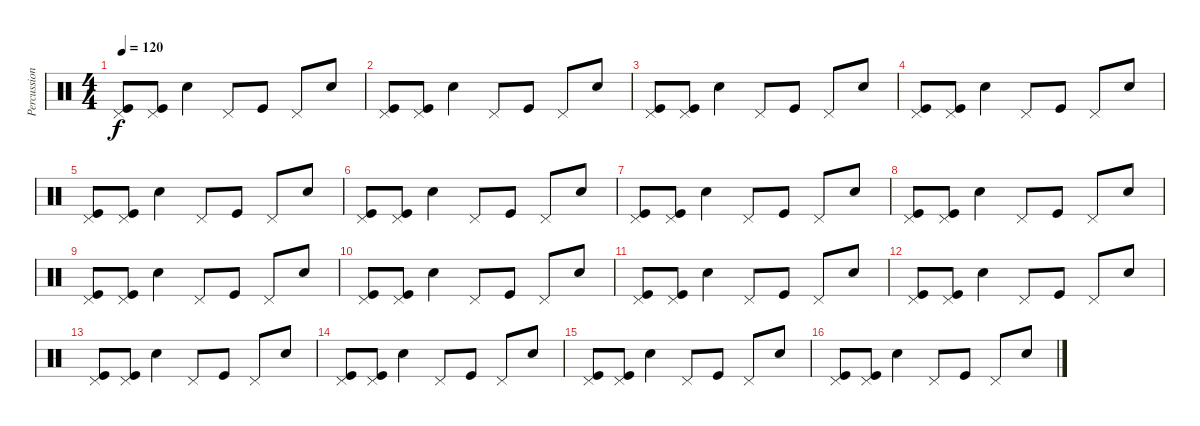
\track ("Percussion" "Percussion") {instrument percussion}
\staff {score}
\articulation defaults
\ts (4 4)
\tempo 120
\clef neutral
\ks c
("Kick (hit)" "Pedal Hi-Hat (hit)").8{dy f} ("Kick (hit)" "Pedal Hi-Hat (hit)").8 "Snare (hit) 2".4 "Pedal Hi-Hat (hit)".8 "Kick (hit)".8 "Pedal Hi-Hat (hit)".8 "Snare (hit) 2".8 |
("Kick (hit)" "Pedal Hi-Hat (hit)").8 ("Kick (hit)" "Pedal Hi-Hat (hit)").8 "Snare (hit) 2".4 "Pedal Hi-Hat (hit)".8 "Kick (hit)".8 "Pedal Hi-Hat (hit)".8 "Snare (hit) 2".8 |
("Kick (hit)" "Pedal Hi-Hat (hit)").8 ("Kick (hit)" "Pedal Hi-Hat (hit)").8 "Snare (hit) 2".4 "Pedal Hi-Hat (hit)".8 "Kick (hit)".8 "Pedal Hi-Hat (hit)".8 "Snare (hit) 2".8 |
("Kick (hit)" "Pedal Hi-Hat (hit)").8 ("Kick (hit)" "Pedal Hi-Hat (hit)").8 "Snare (hit) 2".4 "Pedal Hi-Hat (hit)".8 "Kick (hit)".8 "Pedal Hi-Hat (hit)".8 "Snare (hit) 2".8 |
("Kick (hit)" "Pedal Hi-Hat (hit)").8 ("Kick (hit)" "Pedal Hi-Hat (hit)").8 "Snare (hit) 2".4 "Pedal Hi-Hat (hit)".8 "Kick (hit)".8 "Pedal Hi-Hat (hit)".8 "Snare (hit) 2".8 |
("Kick (hit)" "Pedal Hi-Hat (hit)").8 ("Kick (hit)" "Pedal Hi-Hat (hit)").8 "Snare (hit) 2".4 "Pedal Hi-Hat (hit)".8 "Kick (hit)".8 "Pedal Hi-Hat (hit)".8 "Snare (hit) 2".8 |
("Kick (hit)" "Pedal Hi-Hat (hit)").8 ("Kick (hit)" "Pedal Hi-Hat (hit)").8 "Snare (hit) 2".4 "Pedal Hi-Hat (hit)".8 "Kick (hit)".8 "Pedal Hi-Hat (hit)".8 "Snare (hit) 2".8 |
("Kick (hit)" "Pedal Hi-Hat (hit)").8 ("Kick (hit)" "Pedal Hi-Hat (hit)").8 "Snare (hit) 2".4 "Pedal Hi-Hat (hit)".8 "Kick (hit)".8 "Pedal Hi-Hat (hit)".8 "Snare (hit) 2".8 |
("Kick (hit)" "Pedal Hi-Hat (hit)").8 ("Kick (hit)" "Pedal Hi-Hat (hit)").8 "Snare (hit) 2".4 "Pedal Hi-Hat (hit)".8 "Kick (hit)".8 "Pedal Hi-Hat (hit)".8 "Snare (hit) 2".8 |
("Kick (hit)" "Pedal Hi-Hat (hit)").8 ("Kick (hit)" "Pedal Hi-Hat (hit)").8 "Snare (hit) 2".4 "Pedal Hi-Hat (hit)".8 "Kick (hit)".8 "Pedal Hi-Hat (hit)".8 "Snare (hit) 2".8 |
("Kick (hit)" "Pedal Hi-Hat (hit)").8 ("Kick (hit)" "Pedal Hi-Hat (hit)").8 "Snare (hit) 2".4 "Pedal Hi-Hat (hit)".8 "Kick (hit)".8 "Pedal Hi-Hat (hit)".8 "Snare (hit) 2".8 |
("Kick (hit)" "Pedal Hi-Hat (hit)").8 ("Kick (hit)" "Pedal Hi-Hat (hit)").8 "Snare (hit) 2".4 "Pedal Hi-Hat (hit)".8 "Kick (hit)".8 "Pedal Hi-Hat (hit)".8 "Snare (hit) 2".8 |
("Kick (hit)" "Pedal Hi-Hat (hit)").8 ("Kick (hit)" "Pedal Hi-Hat (hit)").8 "Snare (hit) 2".4 "Pedal Hi-Hat (hit)".8 "Kick (hit)".8 "Pedal Hi-Hat (hit)".8 "Snare (hit) 2".8 |
("Kick (hit)" "Pedal Hi-Hat (hit)").8 ("Kick (hit)" "Pedal Hi-Hat (hit)").8 "Snare (hit) 2".4 "Pedal Hi-Hat (hit)".8 "Kick (hit)".8 "Pedal Hi-Hat (hit)".8 "Snare (hit) 2".8 |
("Kick (hit)" "Pedal Hi-Hat (hit)").8 ("Kick (hit)" "Pedal Hi-Hat (hit)").8 "Snare (hit) 2".4 "Pedal Hi-Hat (hit)".8 "Kick (hit)".8 "Pedal Hi-Hat (hit)".8 "Snare (hit) 2".8 |
("Kick (hit)" "Pedal Hi-Hat (hit)").8 ("Kick (hit)" "Pedal Hi-Hat (hit)").8 "Snare (hit) 2".4 "Pedal Hi-Hat (hit)".8 "Kick (hit)".8 "Pedal Hi-Hat (hit)".8 "Snare (hit) 2".8
